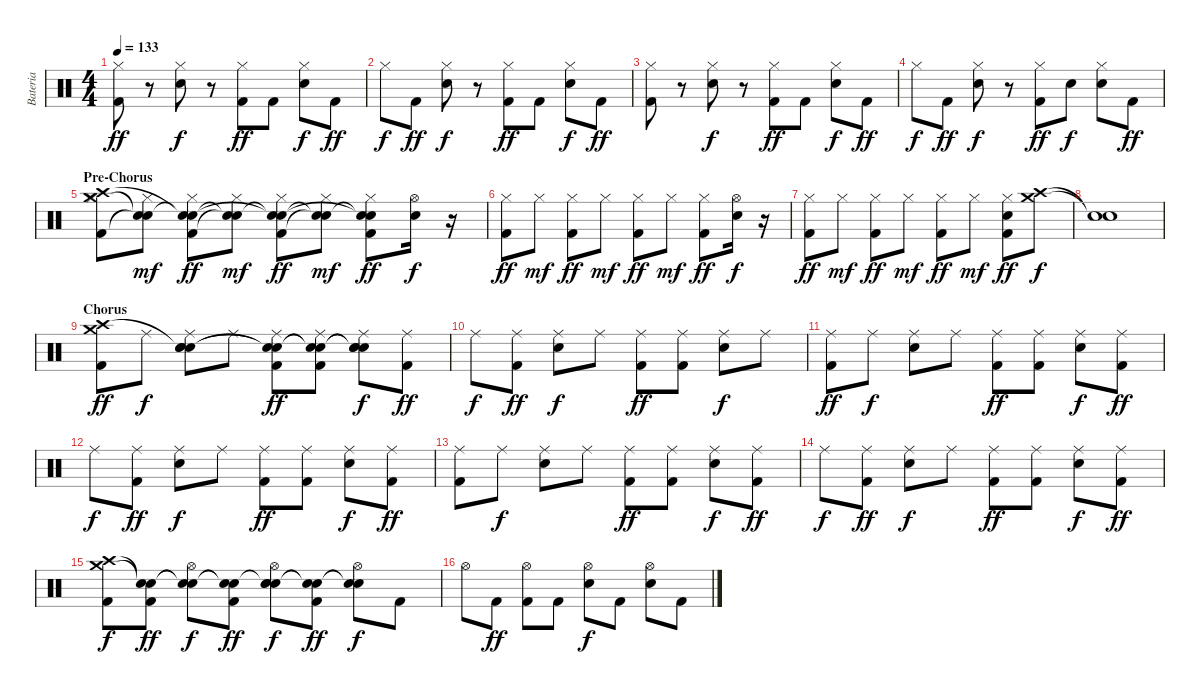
\track ("Bateria" "Bateria") {instrument percussion}
\staff {score}
\articulation defaults
\ts (4 4)
\tempo 133
\clef neutral
\ks c
("Hi-Hat (closed)" "Kick (hit) 2").8{dy ff} r.8 ("Hi-Hat (closed)" "Snare (hit) 2").8{dy f} r.8 ("Hi-Hat (closed)" "Kick (hit) 2").8{dy ff} "Kick (hit) 2".8 ("Hi-Hat (closed)" "Snare (hit) 2").8{dy f} "Kick (hit) 2".8{dy ff} |
"Hi-Hat (closed)".8{dy f} "Kick (hit) 2".8{dy ff} ("Hi-Hat (closed)" "Snare (hit) 2").8{dy f} r.8 ("Hi-Hat (closed)" "Kick (hit) 2").8{dy ff} "Kick (hit) 2".8 ("Hi-Hat (closed)" "Snare (hit) 2").8{dy f} "Kick (hit) 2".8{dy ff} |
("Hi-Hat (closed)" "Kick (hit) 2").8 r.8 ("Hi-Hat (closed)" "Snare (hit) 2").8{dy f} r.8 ("Hi-Hat (closed)" "Kick (hit) 2").8{dy ff} "Kick (hit) 2".8 ("Hi-Hat (closed)" "Snare (hit) 2").8{dy f} "Kick (hit) 2".8{dy ff} |
"Hi-Hat (closed)".8{dy f} "Kick (hit) 2".8{dy ff} ("Hi-Hat (closed)" "Snare (hit) 2").8{dy f} r.8 ("Hi-Hat (closed)" "Kick (hit) 2").8{dy ff} "Snare (hit) 2".8{dy f} ("Hi-Hat (closed)" "Snare (hit) 2").8 "Kick (hit) 2".8{dy ff} |
\section ("" "Pre-Chorus")
("Hi-Hat (closed)" "Kick (hit) 2" "Crash medium (hit)" "Crash high (hit)").8 ("Hi-Hat (closed)" "Snare (hit)"{t} "Snare (hit)"{t}).8{dy mf} ("Hi-Hat (closed)" "Kick (hit) 2" "Snare (hit)"{t} "Snare (hit)"{t}).8{dy ff} ("Hi-Hat (closed)" "Snare (hit)"{t} "Snare (hit)"{t}).8{dy mf} ("Hi-Hat (closed)" "Kick (hit) 2" "Snare (hit)"{t} "Snare (hit)"{t}).8{dy ff} ("Hi-Hat (closed)" "Snare (hit)"{t} "Snare (hit)"{t}).8{dy mf} ("Hi-Hat (closed)" "Kick (hit) 2" "Snare (hit)"{t} "Snare (hit)"{t}).8{dy ff} ("Hi-Hat (open)" "Snare (hit) 2").16{dy f} r.16 |
("Hi-Hat (closed)" "Kick (hit) 2").8{dy ff} "Hi-Hat (closed)".8{dy mf} ("Hi-Hat (closed)" "Kick (hit) 2").8{dy ff} "Hi-Hat (closed)".8{dy mf} ("Hi-Hat (closed)" "Kick (hit) 2").8{dy ff} "Hi-Hat (closed)".8{dy mf} ("Hi-Hat (closed)" "Kick (hit) 2").8{dy ff} ("Hi-Hat (open)" "Snare (hit) 2").16{dy f} r.16 |
("Hi-Hat (closed)" "Kick (hit) 2").8{dy ff} "Hi-Hat (closed)".8{dy mf} ("Hi-Hat (closed)" "Kick (hit) 2").8{dy ff} "Hi-Hat (closed)".8{dy mf} ("Hi-Hat (closed)" "Kick (hit) 2").8{dy ff} "Hi-Hat (closed)".8{dy mf} ("Hi-Hat (closed)" "Snare (hit) 2" "Kick (hit) 2").8{dy ff} ("Crash medium (hit)" "Crash high (hit)").8{dy f} |
("Snare (hit)"{t} "Snare (hit)"{t}).1 |
\section ("" "Chorus")
("Kick (hit) 2" "Crash medium (hit)" "Crash high (hit)").8{dy ff} "Ride (middle)".8{dy f} ("Ride (middle)" "Snare (hit) 2" "Snare (hit)"{t} "Snare (hit)").8 "Ride (middle)".8 ("Ride (middle)" "Kick (hit) 2" "Snare (hit)"{t} "Snare (hit)"{t}).8{dy ff} ("Ride (middle)" "Kick (hit) 2" "Snare (hit)"{t} "Snare (hit)"{t}).8 ("Ride (middle)" "Snare (hit) 2" "Snare (hit)"{t} "Snare (hit)"{t}).8{dy f} ("Ride (middle)" "Kick (hit) 2").8{dy ff} |
"Ride (middle)".8{dy f} ("Ride (middle)" "Kick (hit) 2").8{dy ff} ("Ride (middle)" "Snare (hit) 2").8{dy f} "Ride (middle)".8 ("Ride (middle)" "Kick (hit) 2").8{dy ff} ("Ride (middle)" "Kick (hit) 2").8 ("Ride (middle)" "Snare (hit) 2").8{dy f} "Ride (middle)".8 |
("Ride (middle)" "Kick (hit) 2").8{dy ff} "Ride (middle)".8{dy f} ("Ride (middle)" "Snare (hit) 2").8 "Ride (middle)".8 ("Ride (middle)" "Kick (hit) 2").8{dy ff} ("Ride (middle)" "Kick (hit) 2").8 ("Ride (middle)" "Snare (hit) 2").8{dy f} ("Ride (middle)" "Kick (hit) 2").8{dy ff} |
"Ride (middle)".8{dy f} ("Ride (middle)" "Kick (hit) 2").8{dy ff} ("Ride (middle)" "Snare (hit) 2").8{dy f} "Ride (middle)".8 ("Ride (middle)" "Kick (hit) 2").8{dy ff} ("Ride (middle)" "Kick (hit) 2").8 ("Ride (middle)" "Snare (hit) 2").8{dy f} ("Ride (middle)" "Kick (hit) 2").8{dy ff} |
("Ride (middle)" "Kick (hit) 2").8 "Ride (middle)".8{dy f} ("Ride (middle)" "Snare (hit) 2").8 "Ride (middle)".8 ("Ride (middle)" "Kick (hit) 2").8{dy ff} ("Ride (middle)" "Kick (hit) 2").8 ("Ride (middle)" "Snare (hit) 2").8{dy f} ("Ride (middle)" "Kick (hit) 2").8{dy ff} |
"Ride (middle)".8{dy f} ("Ride (middle)" "Kick (hit) 2").8{dy ff} ("Ride (middle)" "Snare (hit) 2").8{dy f} "Ride (middle)".8 ("Ride (middle)" "Kick (hit) 2").8{dy ff} ("Ride (middle)" "Kick (hit) 2").8 ("Ride (middle)" "Snare (hit) 2").8{dy f} ("Ride (middle)" "Kick (hit) 2").8{dy ff} |
("Kick (hit) 2" "Crash high (hit)" "Crash medium (hit)").8{dy f} ("Kick (hit) 2" "Snare (hit)"{t} "Snare (hit)"{t}).8{dy ff} ("Hi-Hat (open)" "Snare (hit)"{t} "Snare (hit)"{t}).8{dy f} ("Kick (hit) 2" "Snare (hit)"{t} "Snare (hit)"{t}).8{dy ff} ("Hi-Hat (open)" "Snare (hit) 2" "Snare (hit)"{t} "Snare (hit)").8{dy f} ("Kick (hit) 2" "Snare (hit)"{t} "Snare (hit)"{t}).8{dy ff} ("Hi-Hat (open)" "Snare (hit)"{t} "Snare (hit)"{t}).8{dy f} "Kick (hit) 2".8 |
"Hi-Hat (open)".8 "Kick (hit) 2".8{dy ff} ("Hi-Hat (open)" "Kick (hit) 2").8 "Kick (hit) 2".8 ("Hi-Hat (open)" "Snare (hit) 2").8{dy f} "Kick (hit) 2".8 ("Hi-Hat (open)" "Snare (hit) 2").8 "Kick (hit) 2".8
